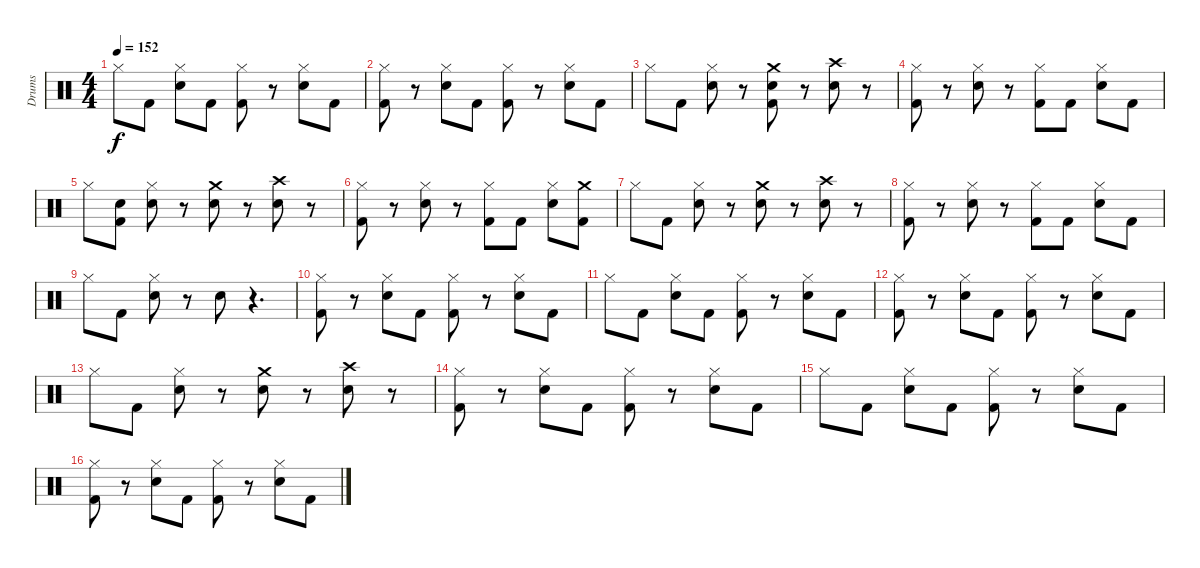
\track ("Drums" "Drums") {instrument percussion}
\staff {score}
\articulation defaults
\ts (4 4)
\tempo 152
\clef neutral
\ks c "Hi-Hat (closed)".8{dy f} "Kick (hit) 2".8
("Electric Snare (hit)" "Hi-Hat (closed)").8 "Kick (hit) 2".8 ("Kick (hit) 2" "Hi-Hat (closed)").8 r.8 ("Electric Snare (hit)" "Hi-Hat (closed)").8 "Kick (hit) 2".8 |
("Kick (hit) 2" "Hi-Hat (closed)").8 r.8 ("Electric Snare (hit)" "Hi-Hat (closed)").8 "Kick (hit) 2".8 ("Kick (hit) 2" "Hi-Hat (closed)").8 r.8 ("Electric Snare (hit)" "Hi-Hat (closed)").8 "Kick (hit) 2".8 |
"Hi-Hat (closed)".8 "Kick (hit) 2".8 ("Electric Snare (hit)" "Hi-Hat (closed)").8 r.8 ("Kick (hit) 2" "Electric Snare (hit)" "Crash medium (hit)").8 r.8 ("Electric Snare (hit)" "Crash high (hit)").8 r.8 |
("Kick (hit) 2" "Hi-Hat (closed)").8 r.8 ("Electric Snare (hit)" "Hi-Hat (closed)").8 r.8 ("Kick (hit) 2" "Hi-Hat (closed)").8 "Kick (hit) 2".8 ("Electric Snare (hit)" "Hi-Hat (closed)").8 "Kick (hit) 2".8 |
"Hi-Hat (closed)".8 ("Kick (hit) 2" "Electric Snare (hit)").8 ("Electric Snare (hit)" "Hi-Hat (closed)").8 r.8 ("Electric Snare (hit)" "Crash medium (hit)").8 r.8 ("Electric Snare (hit)" "Crash high (hit)").8 r.8 |
("Kick (hit) 2" "Hi-Hat (closed)").8 r.8 ("Electric Snare (hit)" "Hi-Hat (closed)").8 r.8 ("Kick (hit) 2" "Hi-Hat (closed)").8 "Kick (hit) 2".8 ("Electric Snare (hit)" "Hi-Hat (closed)").8 ("Kick (hit) 2" "Crash medium (hit)").8 |
"Hi-Hat (closed)".8 "Kick (hit) 2".8 ("Electric Snare (hit)" "Hi-Hat (closed)").8 r.8 ("Electric Snare (hit)" "Crash medium (hit)").8 r.8 ("Electric Snare (hit)" "Crash high (hit)").8 r.8 |
("Kick (hit) 2" "Hi-Hat (closed)").8 r.8 ("Electric Snare (hit)" "Hi-Hat (closed)").8 r.8 ("Kick (hit) 2" "Hi-Hat (closed)").8 "Kick (hit) 2".8 ("Electric Snare (hit)" "Hi-Hat (closed)").8 "Kick (hit) 2".8 |
"Hi-Hat (closed)".8 "Kick (hit) 2".8 ("Electric Snare (hit)" "Hi-Hat (closed)").8 r.8 "Electric Snare (hit)".8 r.4{d} |
("Kick (hit) 2" "Hi-Hat (closed)").8 r.8 ("Electric Snare (hit)" "Hi-Hat (closed)").8 "Kick (hit) 2".8 ("Kick (hit) 2" "Hi-Hat (closed)").8 r.8 ("Electric Snare (hit)" "Hi-Hat (closed)").8 "Kick (hit) 2".8 |
"Hi-Hat (closed)".8 "Kick (hit) 2".8 ("Electric Snare (hit)" "Hi-Hat (closed)").8 "Kick (hit) 2".8 ("Kick (hit) 2" "Hi-Hat (closed)").8 r.8 ("Electric Snare (hit)" "Hi-Hat (closed)").8 "Kick (hit) 2".8 |
("Kick (hit) 2" "Hi-Hat (closed)").8 r.8 ("Electric Snare (hit)" "Hi-Hat (closed)").8 "Kick (hit) 2".8 ("Kick (hit) 2" "Hi-Hat (closed)").8 r.8 ("Electric Snare (hit)" "Hi-Hat (closed)").8 "Kick (hit) 2".8 |
"Hi-Hat (closed)".8 "Kick (hit) 2".8 ("Electric Snare (hit)" "Hi-Hat (closed)").8 r.8 ("Electric Snare (hit)" "Crash medium (hit)").8 r.8 ("Electric Snare (hit)" "Crash high (hit)").8 r.8 |
("Kick (hit) 2" "Hi-Hat (closed)").8 r.8 ("Electric Snare (hit)" "Hi-Hat (closed)").8 "Kick (hit) 2".8 ("Kick (hit) 2" "Hi-Hat (closed)").8 r.8 ("Electric Snare (hit)" "Hi-Hat (closed)").8 "Kick (hit) 2".8 |
"Hi-Hat (closed)".8 "Kick (hit) 2".8 ("Electric Snare (hit)" "Hi-Hat (closed)").8 "Kick (hit) 2".8 ("Kick (hit) 2" "Hi-Hat (closed)").8 r.8 ("Electric Snare (hit)" "Hi-Hat (closed)").8 "Kick (hit) 2".8 |
("Kick (hit) 2" "Hi-Hat (closed)").8 r.8 ("Electric Snare (hit)" "Hi-Hat (closed)").8 "Kick (hit) 2".8 ("Kick (hit) 2" "Hi-Hat (closed)").8 r.8 ("Electric Snare (hit)" "Hi-Hat (closed)").8 "Kick (hit) 2".8
